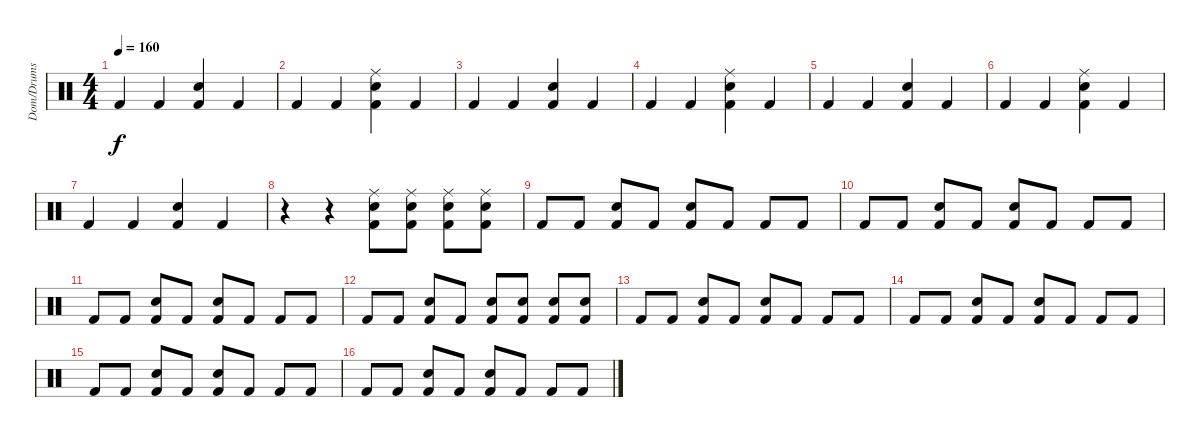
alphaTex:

\track ("Dom/Drums" "Dom/Drums") {instrument percussion}
\staff {score}
\articulation defaults
\ts (4 4)
\tempo 160
\clef neutral
\ks c "Kick (hit) 2".4{dy f} "Kick (hit) 2".4
("Electric Snare (hit)" "Kick (hit) 2").4 "Kick (hit) 2".4 |
"Kick (hit) 2".4 "Kick (hit) 2".4 ("Electric Snare (hit)" "Ride (middle)" "Kick (hit) 2").4 "Kick (hit) 2".4 |
"Kick (hit) 2".4 "Kick (hit) 2".4 ("Electric Snare (hit)" "Kick (hit) 2").4 "Kick (hit) 2".4 |
"Kick (hit) 2".4 "Kick (hit) 2".4 ("Electric Snare (hit)" "Ride (middle)" "Kick (hit) 2").4 "Kick (hit) 2".4 |
"Kick (hit) 2".4 "Kick (hit) 2".4 ("Electric Snare (hit)" "Kick (hit) 2").4 "Kick (hit) 2".4 |
"Kick (hit) 2".4 "Kick (hit) 2".4 ("Electric Snare (hit)" "Ride (middle)" "Kick (hit) 2").4 "Kick (hit) 2".4 |
"Kick (hit) 2".4 "Kick (hit) 2".4 ("Electric Snare (hit)" "Kick (hit) 2").4 "Kick (hit) 2".4 |
r.4 r.4 ("Electric Snare (hit)" "Ride (middle)" "Kick (hit) 2").8 ("Electric Snare (hit)" "Ride (middle)" "Kick (hit) 2").8 ("Electric Snare (hit)" "Ride (middle)" "Kick (hit) 2").8 ("Electric Snare (hit)" "Ride (middle)" "Kick (hit) 2").8 |
"Kick (hit) 2".8 "Kick (hit) 2".8 ("Electric Snare (hit)" "Kick (hit) 2").8 "Kick (hit) 2".8 ("Electric Snare (hit)" "Kick (hit) 2").8 "Kick (hit) 2".8 "Kick (hit) 2".8 "Kick (hit) 2".8 |
"Kick (hit) 2".8 "Kick (hit) 2".8 ("Electric Snare (hit)" "Kick (hit) 2").8 "Kick (hit) 2".8 ("Electric Snare (hit)" "Kick (hit) 2").8 "Kick (hit) 2".8 "Kick (hit) 2".8 "Kick (hit) 2".8 |
"Kick (hit) 2".8 "Kick (hit) 2".8 ("Electric Snare (hit)" "Kick (hit) 2").8 "Kick (hit) 2".8 ("Electric Snare (hit)" "Kick (hit) 2").8 "Kick (hit) 2".8 "Kick (hit) 2".8 "Kick (hit) 2".8 |
"Kick (hit) 2".8 "Kick (hit) 2".8 ("Electric Snare (hit)" "Kick (hit) 2").8 "Kick (hit) 2".8 ("Electric Snare (hit)" "Kick (hit) 2").8 ("Electric Snare (hit)" "Kick (hit) 2").8 ("Electric Snare (hit)" "Kick (hit) 2").8 ("Electric Snare (hit)" "Kick (hit) 2").8 |
"Kick (hit) 2".8 "Kick (hit) 2".8 ("Electric Snare (hit)" "Kick (hit) 2").8 "Kick (hit) 2".8 ("Electric Snare (hit)" "Kick (hit) 2").8 "Kick (hit) 2".8 "Kick (hit) 2".8 "Kick (hit) 2".8 |
"Kick (hit) 2".8 "Kick (hit) 2".8 ("Electric Snare (hit)" "Kick (hit) 2").8 "Kick (hit) 2".8 ("Electric Snare (hit)" "Kick (hit) 2").8 "Kick (hit) 2".8 "Kick (hit) 2".8 "Kick (hit) 2".8 |
"Kick (hit) 2".8 "Kick (hit) 2".8 ("Electric Snare (hit)" "Kick (hit) 2").8 "Kick (hit) 2".8 ("Electric Snare (hit)" "Kick (hit) 2").8 "Kick (hit) 2".8 "Kick (hit) 2".8 "Kick (hit) 2".8 |
"Kick (hit) 2".8 "Kick (hit) 2".8 ("Electric Snare (hit)" "Kick (hit) 2").8 "Kick (hit) 2".8 ("Electric Snare (hit)" "Kick (hit) 2").8 "Kick (hit) 2".8 "Kick (hit) 2".8 "Kick (hit) 2".8
